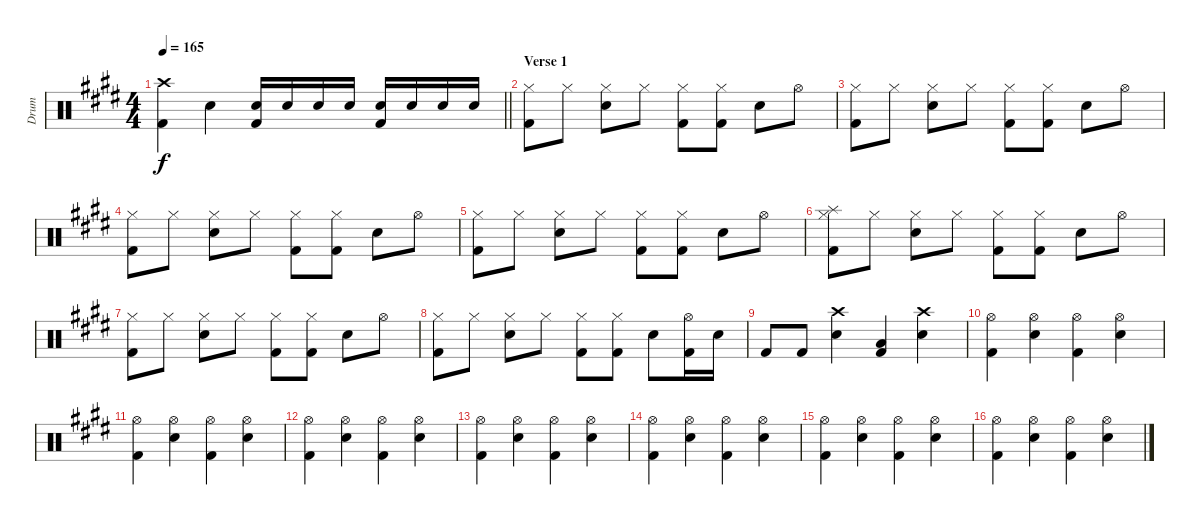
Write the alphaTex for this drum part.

\track ("Drum" "Drum") {instrument percussion}
\staff {score}
\articulation defaults
\ts (4 4)
\tempo 165
\clef neutral
\barLineRight lightlight
\ks e
("Crash high (hit)" "Kick (hit) 2").4{dy f} "Electric Snare (hit)".4 ("Electric Snare (hit)" "Kick (hit) 2").16 "Electric Snare (hit)".16 "Electric Snare (hit)".16 "Electric Snare (hit)".16 ("Electric Snare (hit)" "Kick (hit) 2").16 "Electric Snare (hit)".16 "Electric Snare (hit)".16 "Electric Snare (hit)".16 |
\section ("" "Verse 1")
("Hi-Hat (closed)" "Kick (hit) 2").8 "Hi-Hat (closed)".8 ("Hi-Hat (closed)" "Electric Snare (hit)").8 "Hi-Hat (closed)".8 ("Hi-Hat (closed)" "Kick (hit) 2").8 ("Hi-Hat (closed)" "Kick (hit) 2").8 "Electric Snare (hit)".8 "Hi-Hat (open)".8 |
("Hi-Hat (closed)" "Kick (hit) 2").8 "Hi-Hat (closed)".8 ("Hi-Hat (closed)" "Electric Snare (hit)").8 "Hi-Hat (closed)".8 ("Hi-Hat (closed)" "Kick (hit) 2").8 ("Hi-Hat (closed)" "Kick (hit) 2").8 "Electric Snare (hit)".8 "Hi-Hat (open)".8 |
("Hi-Hat (closed)" "Kick (hit) 2").8 "Hi-Hat (closed)".8 ("Hi-Hat (closed)" "Electric Snare (hit)").8 "Hi-Hat (closed)".8 ("Hi-Hat (closed)" "Kick (hit) 2").8 ("Hi-Hat (closed)" "Kick (hit) 2").8 "Electric Snare (hit)".8 "Hi-Hat (open)".8 |
("Hi-Hat (closed)" "Kick (hit) 2").8 "Hi-Hat (closed)".8 ("Hi-Hat (closed)" "Electric Snare (hit)").8 "Hi-Hat (closed)".8 ("Hi-Hat (closed)" "Kick (hit) 2").8 ("Hi-Hat (closed)" "Kick (hit) 2").8 "Electric Snare (hit)".8 "Hi-Hat (open)".8 |
("Hi-Hat (closed)" "Kick (hit) 2" "Splash (hit)").8 "Hi-Hat (closed)".8 ("Hi-Hat (closed)" "Electric Snare (hit)").8 "Hi-Hat (closed)".8 ("Hi-Hat (closed)" "Kick (hit) 2").8 ("Hi-Hat (closed)" "Kick (hit) 2").8 "Electric Snare (hit)".8 "Hi-Hat (open)".8 |
("Hi-Hat (closed)" "Kick (hit) 2").8 "Hi-Hat (closed)".8 ("Hi-Hat (closed)" "Electric Snare (hit)").8 "Hi-Hat (closed)".8 ("Hi-Hat (closed)" "Kick (hit) 2").8 ("Hi-Hat (closed)" "Kick (hit) 2").8 "Electric Snare (hit)".8 "Hi-Hat (open)".8 |
("Hi-Hat (closed)" "Kick (hit) 2").8 "Hi-Hat (closed)".8 ("Hi-Hat (closed)" "Electric Snare (hit)").8 "Hi-Hat (closed)".8 ("Hi-Hat (closed)" "Kick (hit) 2").8 ("Hi-Hat (closed)" "Kick (hit) 2").8 "Electric Snare (hit)".8 ("Hi-Hat (open)" "Kick (hit) 2").16 "Electric Snare (hit)".16 |
"Kick (hit) 2".8 "Kick (hit) 2".8 ("Crash high (hit)" "Electric Snare (hit)").4 ("Low Floor Tom (hit)" "Kick (hit) 2").4 ("Crash high (hit)" "Electric Snare (hit)").4 |
("Hi-Hat (open)" "Kick (hit) 2").4 ("Hi-Hat (open)" "Electric Snare (hit)").4 ("Hi-Hat (open)" "Kick (hit) 2").4 ("Hi-Hat (open)" "Electric Snare (hit)").4 |
("Hi-Hat (open)" "Kick (hit) 2").4 ("Hi-Hat (open)" "Electric Snare (hit)").4 ("Hi-Hat (open)" "Kick (hit) 2").4 ("Hi-Hat (open)" "Electric Snare (hit)").4 |
("Hi-Hat (open)" "Kick (hit) 2").4 ("Hi-Hat (open)" "Electric Snare (hit)").4 ("Hi-Hat (open)" "Kick (hit) 2").4 ("Hi-Hat (open)" "Electric Snare (hit)").4 |
("Hi-Hat (open)" "Kick (hit) 2").4 ("Hi-Hat (open)" "Electric Snare (hit)").4 ("Hi-Hat (open)" "Kick (hit) 2").4 ("Hi-Hat (open)" "Electric Snare (hit)").4 |
("Hi-Hat (open)" "Kick (hit) 2").4 ("Hi-Hat (open)" "Electric Snare (hit)").4 ("Hi-Hat (open)" "Kick (hit) 2").4 ("Hi-Hat (open)" "Electric Snare (hit)").4 |
("Hi-Hat (open)" "Kick (hit) 2").4 ("Hi-Hat (open)" "Electric Snare (hit)").4 ("Hi-Hat (open)" "Kick (hit) 2").4 ("Hi-Hat (open)" "Electric Snare (hit)").4 |
("Hi-Hat (open)" "Kick (hit) 2").4 ("Hi-Hat (open)" "Electric Snare (hit)").4 ("Hi-Hat (open)" "Kick (hit) 2").4 ("Hi-Hat (open)" "Electric Snare (hit)").4
